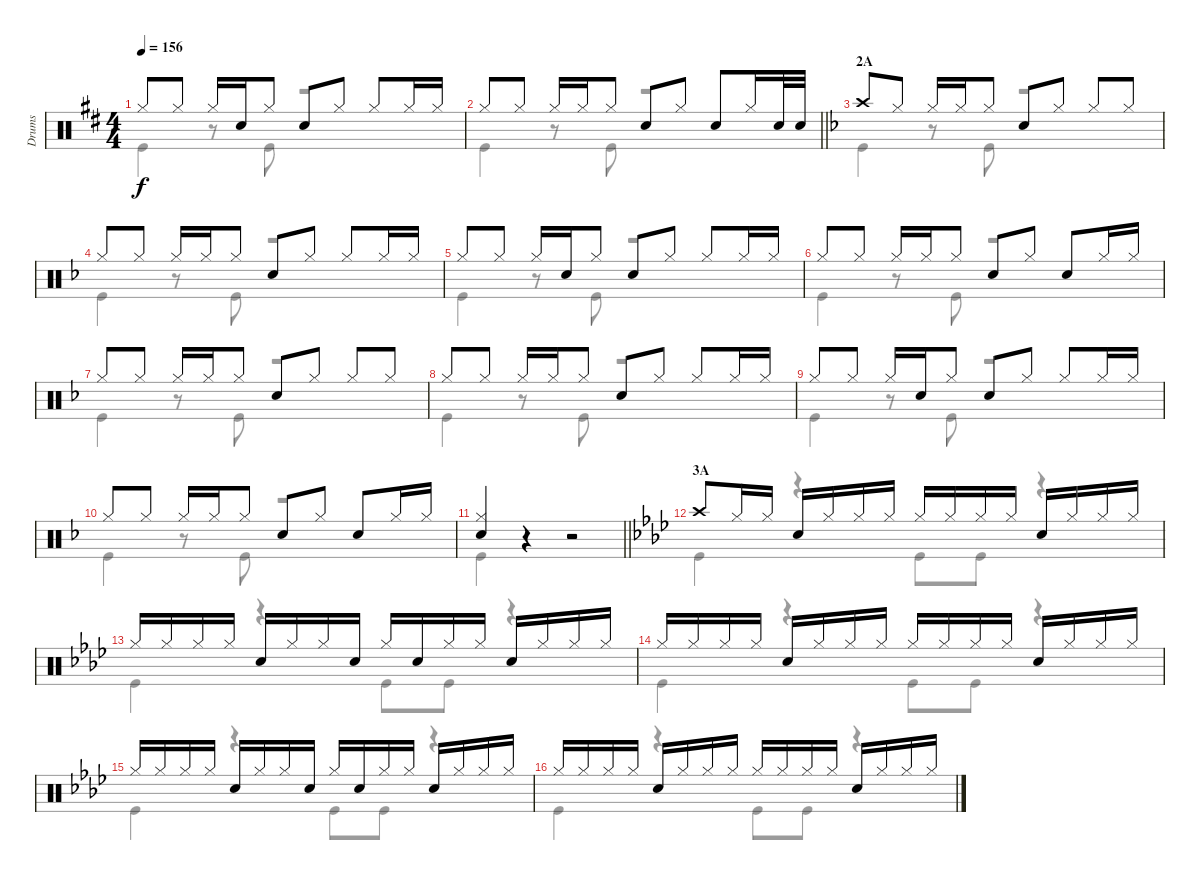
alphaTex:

\track ("Drums" "Drums") {instrument percussion}
\staff {score}
\articulation defaults
\voice
\ts (4 4)
\tempo 156
\clef neutral
\ks d "Hi-Hat (closed)".8{dy f} "Hi-Hat (closed)".8 "Hi-Hat (closed)".16 "Snare (hit) 2".16 "Hi-Hat (closed)".8 "Snare (hit) 2".8 "Hi-Hat (closed)".8 "Hi-Hat (closed)".8 "Hi-Hat (closed)".16 "Hi-Hat (closed)".16
|
\barLineRight lightlight "Hi-Hat (closed)".8 "Hi-Hat (closed)".8 "Hi-Hat (closed)".16 "Hi-Hat (closed)".16 "Hi-Hat (closed)".8 "Snare (hit) 2".8 "Hi-Hat (closed)".8 "Snare (hit) 2".8 "Hi-Hat (closed)".16 "Snare (hit) 2".32 "Snare (hit) 2".32
|
\section ("" "2A")
\ks f "Crash high (hit)".8 "Hi-Hat (closed)".8 "Hi-Hat (closed)".16 "Hi-Hat (closed)".16 "Hi-Hat (closed)".8 "Snare (hit) 2".8 "Hi-Hat (closed)".8 "Hi-Hat (closed)".8 "Hi-Hat (closed)".8
|
"Hi-Hat (closed)".8 "Hi-Hat (closed)".8 "Hi-Hat (closed)".16 "Hi-Hat (closed)".16 "Hi-Hat (closed)".8 "Snare (hit) 2".8 "Hi-Hat (closed)".8 "Hi-Hat (closed)".8 "Hi-Hat (closed)".16 "Hi-Hat (closed)".16 |
"Hi-Hat (closed)".8 "Hi-Hat (closed)".8 "Hi-Hat (closed)".16 "Snare (hit) 2".16 "Hi-Hat (closed)".8 "Snare (hit) 2".8 "Hi-Hat (closed)".8 "Hi-Hat (closed)".8 "Hi-Hat (closed)".16 "Hi-Hat (closed)".16 |
"Hi-Hat (closed)".8 "Hi-Hat (closed)".8 "Hi-Hat (closed)".16 "Hi-Hat (closed)".16 "Hi-Hat (closed)".8 "Snare (hit) 2".8 "Hi-Hat (closed)".8 "Snare (hit) 2".8 "Hi-Hat (closed)".16 "Hi-Hat (closed)".16 |
"Hi-Hat (closed)".8 "Hi-Hat (closed)".8 "Hi-Hat (closed)".16 "Hi-Hat (closed)".16 "Hi-Hat (closed)".8 "Snare (hit) 2".8 "Hi-Hat (closed)".8 "Hi-Hat (closed)".8 "Hi-Hat (closed)".8 |
"Hi-Hat (closed)".8 "Hi-Hat (closed)".8 "Hi-Hat (closed)".16 "Hi-Hat (closed)".16 "Hi-Hat (closed)".8 "Snare (hit) 2".8 "Hi-Hat (closed)".8 "Hi-Hat (closed)".8 "Hi-Hat (closed)".16 "Hi-Hat (closed)".16 |
"Hi-Hat (closed)".8 "Hi-Hat (closed)".8 "Hi-Hat (closed)".16 "Snare (hit) 2".16 "Hi-Hat (closed)".8 "Snare (hit) 2".8 "Hi-Hat (closed)".8 "Hi-Hat (closed)".8 "Hi-Hat (closed)".16 "Hi-Hat (closed)".16 |
"Hi-Hat (closed)".8 "Hi-Hat (closed)".8 "Hi-Hat (closed)".16 "Hi-Hat (closed)".16 "Hi-Hat (closed)".8 "Snare (hit) 2".8 "Hi-Hat (closed)".8 "Snare (hit) 2".8 "Hi-Hat (closed)".16 "Hi-Hat (closed)".16 |
\barLineRight lightlight
("Hi-Hat (closed)" "Snare (hit) 2").4 r.4 r.2 |
\section ("" "3A")
\ks ab "Crash high (hit)".8 "Hi-Hat (closed)".16 "Hi-Hat (closed)".16 "Snare (hit) 2".16 "Hi-Hat (closed)".16 "Hi-Hat (closed)".16 "Hi-Hat (closed)".16 "Hi-Hat (closed)".16 "Hi-Hat (closed)".16 "Hi-Hat (closed)".16 "Hi-Hat (closed)".16 "Snare (hit) 2".16 "Hi-Hat (closed)".16 "Hi-Hat (closed)".16 "Hi-Hat (closed)".16
|
"Hi-Hat (closed)".16 "Hi-Hat (closed)".16 "Hi-Hat (closed)".16 "Hi-Hat (closed)".16 "Snare (hit) 2".16 "Hi-Hat (closed)".16 "Hi-Hat (closed)".16 "Snare (hit) 2".16 "Hi-Hat (closed)".16 "Snare (hit) 2".16 "Hi-Hat (closed)".16 "Hi-Hat (closed)".16 "Snare (hit) 2".16 "Hi-Hat (closed)".16 "Hi-Hat (closed)".16 "Hi-Hat (closed)".16 |
"Hi-Hat (closed)".16 "Hi-Hat (closed)".16 "Hi-Hat (closed)".16 "Hi-Hat (closed)".16 "Snare (hit) 2".16 "Hi-Hat (closed)".16 "Hi-Hat (closed)".16 "Hi-Hat (closed)".16 "Hi-Hat (closed)".16 "Hi-Hat (closed)".16 "Hi-Hat (closed)".16 "Hi-Hat (closed)".16 "Snare (hit) 2".16 "Hi-Hat (closed)".16 "Hi-Hat (closed)".16 "Hi-Hat (closed)".16 |
"Hi-Hat (closed)".16 "Hi-Hat (closed)".16 "Hi-Hat (closed)".16 "Hi-Hat (closed)".16 "Snare (hit) 2".16 "Hi-Hat (closed)".16 "Hi-Hat (closed)".16 "Snare (hit) 2".16 "Hi-Hat (closed)".16 "Snare (hit) 2".16 "Hi-Hat (closed)".16 "Hi-Hat (closed)".16 "Snare (hit) 2".16 "Hi-Hat (closed)".16 "Hi-Hat (closed)".16 "Hi-Hat (closed)".16 |
"Hi-Hat (closed)".16 "Hi-Hat (closed)".16 "Hi-Hat (closed)".16 "Hi-Hat (closed)".16 "Snare (hit) 2".16 "Hi-Hat (closed)".16 "Hi-Hat (closed)".16 "Hi-Hat (closed)".16 "Hi-Hat (closed)".16 "Hi-Hat (closed)".16 "Hi-Hat (closed)".16 "Hi-Hat (closed)".16 "Snare (hit) 2".16 "Hi-Hat (closed)".16 "Hi-Hat (closed)".16 "Hi-Hat (closed)".16
\voice
\clef neutral
\ottava regular
\simile none
\ks d "Kick (hit)".4{dy f}
r.8 "Kick (hit)".8 r.2 |
\barLineRight lightlight "Kick (hit)".4
r.8 "Kick (hit)".8 r.2 |
\ks f "Kick (hit)".4
r.8 "Kick (hit)".8 r.2 |
"Kick (hit)".4 r.8 "Kick (hit)".8 r.2 |
"Kick (hit)".4 r.8 "Kick (hit)".8 r.2 |
"Kick (hit)".4 r.8 "Kick (hit)".8 r.2 |
"Kick (hit)".4 r.8 "Kick (hit)".8 r.2 |
"Kick (hit)".4 r.8 "Kick (hit)".8 r.2 |
"Kick (hit)".4 r.8 "Kick (hit)".8 r.2 |
"Kick (hit)".4 r.8 "Kick (hit)".8 r.2 |
\barLineRight lightlight "Kick (hit)".4
r.4 r.2 |
\ks ab "Kick (hit)".4
r.4 "Kick (hit)".8 "Kick (hit)".8 r.4 |
"Kick (hit)".4 r.4 "Kick (hit)".8 "Kick (hit)".8 r.4 |
"Kick (hit)".4 r.4 "Kick (hit)".8 "Kick (hit)".8 r.4 |
"Kick (hit)".4 r.4 "Kick (hit)".8 "Kick (hit)".8 r.4 |
"Kick (hit)".4 r.4 "Kick (hit)".8 "Kick (hit)".8 r.4
